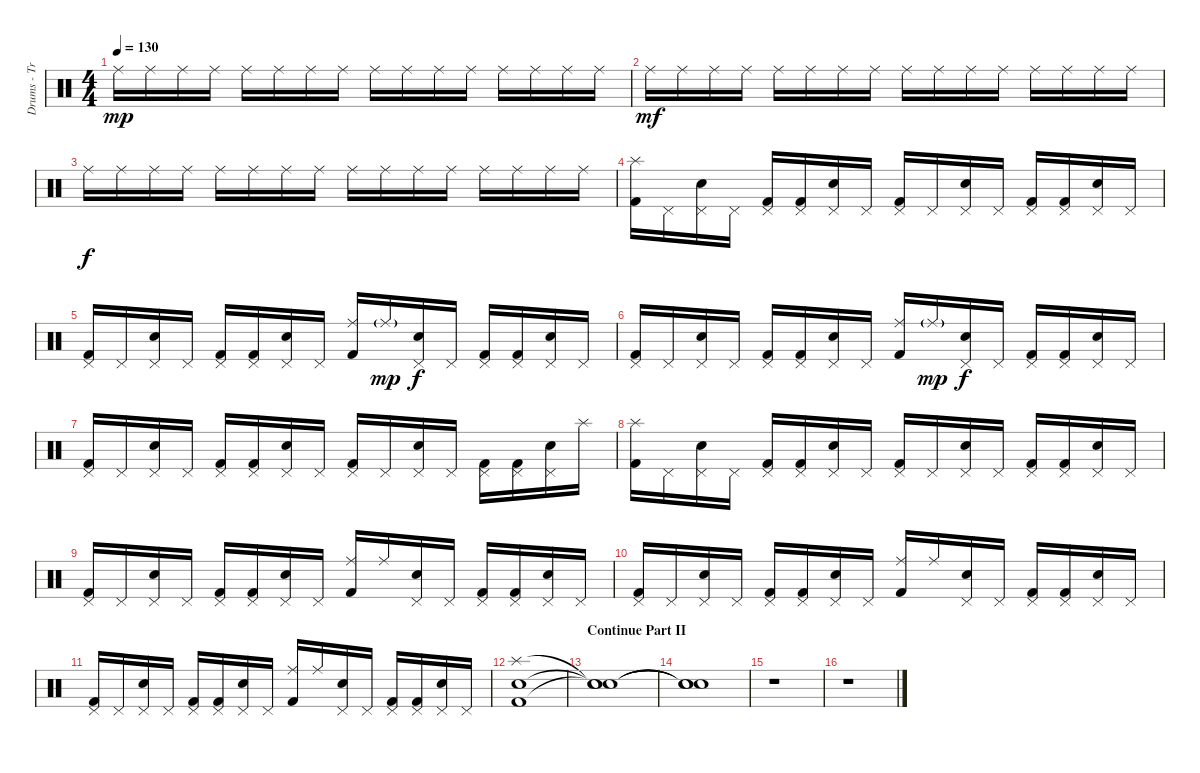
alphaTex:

\track ("Drums - Travis Barker" "Drums - Tr") {instrument percussion}
\staff {score}
\articulation defaults
\ts (4 4)
\tempo 130
\clef neutral
\ks c "Ride (middle)".16{dy mp} "Ride (middle)".16 "Ride (middle)".16 "Ride (middle)".16 "Ride (middle)".16 "Ride (middle)".16 "Ride (middle)".16 "Ride (middle)".16 "Ride (middle)".16 "Ride (middle)".16 "Ride (middle)".16 "Ride (middle)".16 "Ride (middle)".16 "Ride (middle)".16 "Ride (middle)".16 "Ride (middle)".16
|
"Ride (middle)".16{dy mf} "Ride (middle)".16 "Ride (middle)".16 "Ride (middle)".16 "Ride (middle)".16 "Ride (middle)".16 "Ride (middle)".16 "Ride (middle)".16 "Ride (middle)".16 "Ride (middle)".16 "Ride (middle)".16 "Ride (middle)".16 "Ride (middle)".16 "Ride (middle)".16 "Ride (middle)".16 "Ride (middle)".16 |
"Ride (middle)".16{dy f} "Ride (middle)".16 "Ride (middle)".16 "Ride (middle)".16 "Ride (middle)".16 "Ride (middle)".16 "Ride (middle)".16 "Ride (middle)".16 "Ride (middle)".16 "Ride (middle)".16 "Ride (middle)".16 "Ride (middle)".16 "Ride (middle)".16 "Ride (middle)".16 "Ride (middle)".16 "Ride (middle)".16 |
("Splash (hit)" "Kick (hit) 2").16 "Pedal Hi-Hat (hit)".16 ("Pedal Hi-Hat (hit)" "Electric Snare (hit)").16 "Pedal Hi-Hat (hit)".16 ("Pedal Hi-Hat (hit)" "Kick (hit) 2").16 ("Pedal Hi-Hat (hit)" "Kick (hit) 2").16 ("Pedal Hi-Hat (hit)" "Electric Snare (hit)").16 "Pedal Hi-Hat (hit)".16 ("Pedal Hi-Hat (hit)" "Kick (hit) 2").16 "Pedal Hi-Hat (hit)".16 ("Pedal Hi-Hat (hit)" "Electric Snare (hit)").16 "Pedal Hi-Hat (hit)".16 ("Pedal Hi-Hat (hit)" "Kick (hit) 2").16 ("Pedal Hi-Hat (hit)" "Kick (hit) 2").16 ("Pedal Hi-Hat (hit)" "Electric Snare (hit)").16 "Pedal Hi-Hat (hit)".16 |
("Pedal Hi-Hat (hit)" "Kick (hit) 2").16 "Pedal Hi-Hat (hit)".16 ("Pedal Hi-Hat (hit)" "Electric Snare (hit)").16 "Pedal Hi-Hat (hit)".16 ("Pedal Hi-Hat (hit)" "Kick (hit) 2").16 ("Pedal Hi-Hat (hit)" "Kick (hit) 2").16 ("Pedal Hi-Hat (hit)" "Electric Snare (hit)").16 "Pedal Hi-Hat (hit)".16 ("Ride (middle)" "Kick (hit) 2").16 "Ride (middle)"{g}.16{dy mp} ("Pedal Hi-Hat (hit)" "Electric Snare (hit)").16{dy f} "Pedal Hi-Hat (hit)".16 ("Pedal Hi-Hat (hit)" "Kick (hit) 2").16 ("Pedal Hi-Hat (hit)" "Kick (hit) 2").16 ("Pedal Hi-Hat (hit)" "Electric Snare (hit)").16 "Pedal Hi-Hat (hit)".16 |
("Pedal Hi-Hat (hit)" "Kick (hit) 2").16 "Pedal Hi-Hat (hit)".16 ("Pedal Hi-Hat (hit)" "Electric Snare (hit)").16 "Pedal Hi-Hat (hit)".16 ("Pedal Hi-Hat (hit)" "Kick (hit) 2").16 ("Pedal Hi-Hat (hit)" "Kick (hit) 2").16 ("Pedal Hi-Hat (hit)" "Electric Snare (hit)").16 "Pedal Hi-Hat (hit)".16 ("Ride (middle)" "Kick (hit) 2").16 "Ride (middle)"{g}.16{dy mp} ("Pedal Hi-Hat (hit)" "Electric Snare (hit)").16{dy f} "Pedal Hi-Hat (hit)".16 ("Pedal Hi-Hat (hit)" "Kick (hit) 2").16 ("Pedal Hi-Hat (hit)" "Kick (hit) 2").16 ("Pedal Hi-Hat (hit)" "Electric Snare (hit)").16 "Pedal Hi-Hat (hit)".16 |
("Pedal Hi-Hat (hit)" "Kick (hit) 2").16 "Pedal Hi-Hat (hit)".16 ("Pedal Hi-Hat (hit)" "Electric Snare (hit)").16 "Pedal Hi-Hat (hit)".16 ("Pedal Hi-Hat (hit)" "Kick (hit) 2").16 ("Pedal Hi-Hat (hit)" "Kick (hit) 2").16 ("Pedal Hi-Hat (hit)" "Electric Snare (hit)").16 "Pedal Hi-Hat (hit)".16 ("Pedal Hi-Hat (hit)" "Kick (hit) 2").16 "Pedal Hi-Hat (hit)".16 ("Pedal Hi-Hat (hit)" "Electric Snare (hit)").16 "Pedal Hi-Hat (hit)".16 ("Pedal Hi-Hat (hit)" "Kick (hit) 2").16 ("Pedal Hi-Hat (hit)" "Kick (hit) 2").16 ("Pedal Hi-Hat (hit)" "Electric Snare (hit)").16 "Splash (hit)".16 |
("Splash (hit)" "Kick (hit) 2").16 "Pedal Hi-Hat (hit)".16 ("Pedal Hi-Hat (hit)" "Electric Snare (hit)").16 "Pedal Hi-Hat (hit)".16 ("Pedal Hi-Hat (hit)" "Kick (hit) 2").16 ("Pedal Hi-Hat (hit)" "Kick (hit) 2").16 ("Pedal Hi-Hat (hit)" "Electric Snare (hit)").16 "Pedal Hi-Hat (hit)".16 ("Pedal Hi-Hat (hit)" "Kick (hit) 2").16 "Pedal Hi-Hat (hit)".16 ("Pedal Hi-Hat (hit)" "Electric Snare (hit)").16 "Pedal Hi-Hat (hit)".16 ("Pedal Hi-Hat (hit)" "Kick (hit) 2").16 ("Pedal Hi-Hat (hit)" "Kick (hit) 2").16 ("Pedal Hi-Hat (hit)" "Electric Snare (hit)").16 "Pedal Hi-Hat (hit)".16 |
("Pedal Hi-Hat (hit)" "Kick (hit) 2").16 "Pedal Hi-Hat (hit)".16 ("Pedal Hi-Hat (hit)" "Electric Snare (hit)").16 "Pedal Hi-Hat (hit)".16 ("Pedal Hi-Hat (hit)" "Kick (hit) 2").16 ("Pedal Hi-Hat (hit)" "Kick (hit) 2").16 ("Pedal Hi-Hat (hit)" "Electric Snare (hit)").16 "Pedal Hi-Hat (hit)".16 ("Ride (middle)" "Kick (hit) 2").16 "Ride (middle)".16 ("Pedal Hi-Hat (hit)" "Electric Snare (hit)").16 "Pedal Hi-Hat (hit)".16 ("Pedal Hi-Hat (hit)" "Kick (hit) 2").16 ("Pedal Hi-Hat (hit)" "Kick (hit) 2").16 ("Pedal Hi-Hat (hit)" "Electric Snare (hit)").16 "Pedal Hi-Hat (hit)".16 |
("Pedal Hi-Hat (hit)" "Kick (hit) 2").16 "Pedal Hi-Hat (hit)".16 ("Pedal Hi-Hat (hit)" "Electric Snare (hit)").16 "Pedal Hi-Hat (hit)".16 ("Pedal Hi-Hat (hit)" "Kick (hit) 2").16 ("Pedal Hi-Hat (hit)" "Kick (hit) 2").16 ("Pedal Hi-Hat (hit)" "Electric Snare (hit)").16 "Pedal Hi-Hat (hit)".16 ("Ride (middle)" "Kick (hit) 2").16 "Ride (middle)".16 ("Pedal Hi-Hat (hit)" "Electric Snare (hit)").16 "Pedal Hi-Hat (hit)".16 ("Pedal Hi-Hat (hit)" "Kick (hit) 2").16 ("Pedal Hi-Hat (hit)" "Kick (hit) 2").16 ("Pedal Hi-Hat (hit)" "Electric Snare (hit)").16 "Pedal Hi-Hat (hit)".16 |
("Pedal Hi-Hat (hit)" "Kick (hit) 2").16 "Pedal Hi-Hat (hit)".16 ("Pedal Hi-Hat (hit)" "Electric Snare (hit)").16 "Pedal Hi-Hat (hit)".16 ("Pedal Hi-Hat (hit)" "Kick (hit) 2").16 ("Pedal Hi-Hat (hit)" "Kick (hit) 2").16 ("Pedal Hi-Hat (hit)" "Electric Snare (hit)").16 "Pedal Hi-Hat (hit)".16 ("Ride (middle)" "Kick (hit) 2").16 "Ride (middle)".16 ("Pedal Hi-Hat (hit)" "Electric Snare (hit)").16 "Pedal Hi-Hat (hit)".16 ("Pedal Hi-Hat (hit)" "Kick (hit) 2").16 ("Pedal Hi-Hat (hit)" "Kick (hit) 2").16 ("Pedal Hi-Hat (hit)" "Electric Snare (hit)").16 "Pedal Hi-Hat (hit)".16 |
("Splash (hit)" "Electric Snare (hit)" "Kick (hit) 2").1 |
\section ("" "Continue Part II")
("Snare (hit)"{t} "Snare (hit)"{t} "Snare (hit)"{t}).1 |
("Snare (hit)"{t} "Snare (hit)"{t} "Snare (hit)"{t}).1 |
r.1 |
r.1
